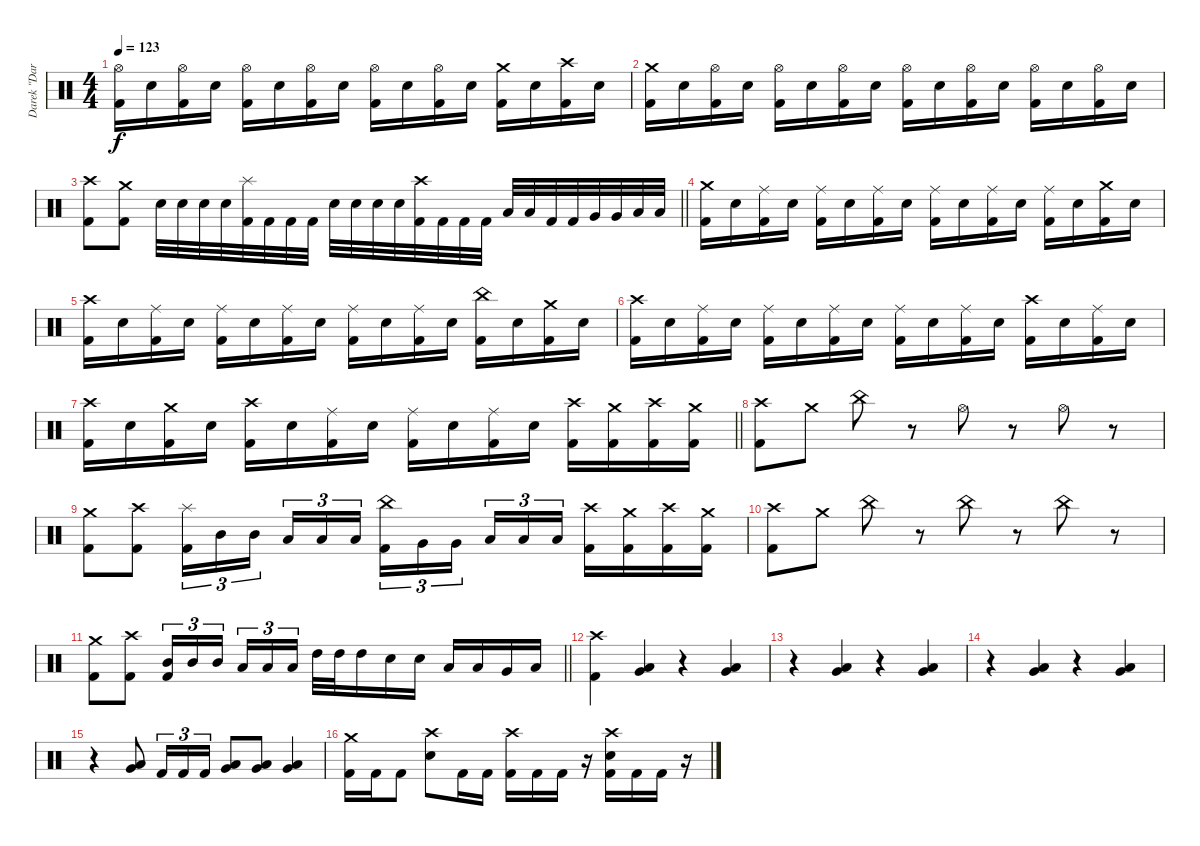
\track ("Darek \"Daray\" Brzozowski " "Darek \"Dar") {instrument percussion}
\staff {score}
\articulation defaults
\ts (4 4)
\tempo 123
\clef neutral
\ks c
("Hi-Hat (open)" "Kick (hit) 2").16{dy f} "Electric Snare (hit)".16 ("Hi-Hat (open)" "Kick (hit) 2").16 "Electric Snare (hit)".16 ("Hi-Hat (open)" "Kick (hit) 2").16 "Electric Snare (hit)".16 ("Hi-Hat (open)" "Kick (hit) 2").16 "Electric Snare (hit)".16 ("Hi-Hat (open)" "Kick (hit) 2").16 "Electric Snare (hit)".16 ("Hi-Hat (open)" "Kick (hit) 2").16 "Electric Snare (hit)".16 ("Crash medium (hit)" "Kick (hit) 2").16 "Electric Snare (hit)".16 ("Crash high (hit)" "Kick (hit) 2").16 "Electric Snare (hit)".16 |
("Crash medium (hit)" "Kick (hit) 2").16 "Electric Snare (hit)".16 ("Hi-Hat (open)" "Kick (hit) 2").16 "Electric Snare (hit)".16 ("Hi-Hat (open)" "Kick (hit) 2").16 "Electric Snare (hit)".16 ("Hi-Hat (open)" "Kick (hit) 2").16 "Electric Snare (hit)".16 ("Hi-Hat (open)" "Kick (hit) 2").16 "Electric Snare (hit)".16 ("Hi-Hat (open)" "Kick (hit) 2").16 "Electric Snare (hit)".16 ("Hi-Hat (open)" "Kick (hit) 2").16 "Electric Snare (hit)".16 ("Hi-Hat (open)" "Kick (hit) 2").16 "Electric Snare (hit)".16 |
\barLineRight lightlight
("Crash high (hit)" "Kick (hit) 2").8 ("Crash medium (hit)" "Kick (hit) 2").8 "Electric Snare (hit)".32 "Electric Snare (hit)".32 "Electric Snare (hit)".32 "Electric Snare (hit)".32 ("Splash (hit)" "Kick (hit) 2").32 "Kick (hit) 2".32 "Kick (hit) 2".32 "Kick (hit) 2".32 "Electric Snare (hit)".32 "Electric Snare (hit)".32 "Electric Snare (hit)".32 "Electric Snare (hit)".32 ("Crash high (hit)" "Kick (hit) 2").32 "Kick (hit) 2".32 "Kick (hit) 2".32 "Kick (hit) 2".32 "Low Tom (hit)".32 "Low Tom (hit)".32 "Kick (hit) 2".32 "Kick (hit) 2".32 "Very Low Tom (hit)".32 "Very Low Tom (hit)".32 "Low Floor Tom (hit)".32 "Low Floor Tom (hit)".32 |
("Crash medium (hit)" "Kick (hit) 2").16 "Electric Snare (hit)".16 ("Ride (middle)" "Kick (hit) 2").16 "Electric Snare (hit)".16 ("Ride (middle)" "Kick (hit) 2").16 "Electric Snare (hit)".16 ("Ride (middle)" "Kick (hit) 2").16 "Electric Snare (hit)".16 ("Ride (middle)" "Kick (hit) 2").16 "Electric Snare (hit)".16 ("Ride (middle)" "Kick (hit) 2").16 "Electric Snare (hit)".16 ("Ride (middle)" "Kick (hit) 2").16 "Electric Snare (hit)".16 ("Crash medium (hit)" "Kick (hit) 2").16 "Electric Snare (hit)".16 |
("Crash high (hit)" "Kick (hit) 2").16 "Electric Snare (hit)".16 ("Ride (middle)" "Kick (hit) 2").16 "Electric Snare (hit)".16 ("Ride (middle)" "Kick (hit) 2").16 "Electric Snare (hit)".16 ("Ride (middle)" "Kick (hit) 2").16 "Electric Snare (hit)".16 ("Ride (middle)" "Kick (hit) 2").16 "Electric Snare (hit)".16 ("Ride (middle)" "Kick (hit) 2").16 "Electric Snare (hit)".16 ("China (hit)" "Kick (hit) 2").16 "Electric Snare (hit)".16 ("Crash medium (hit)" "Kick (hit) 2").16 "Electric Snare (hit)".16 |
("Crash high (hit)" "Kick (hit) 2").16 "Electric Snare (hit)".16 ("Ride (middle)" "Kick (hit) 2").16 "Electric Snare (hit)".16 ("Ride (middle)" "Kick (hit) 2").16 "Electric Snare (hit)".16 ("Ride (middle)" "Kick (hit) 2").16 "Electric Snare (hit)".16 ("Ride (middle)" "Kick (hit) 2").16 "Electric Snare (hit)".16 ("Ride (middle)" "Kick (hit) 2").16 "Electric Snare (hit)".16 ("Crash high (hit)" "Kick (hit) 2").16 "Electric Snare (hit)".16 ("Ride (middle)" "Kick (hit) 2").16 "Electric Snare (hit)".16 |
\barLineRight lightlight
("Crash high (hit)" "Kick (hit) 2").16 "Electric Snare (hit)".16 ("Crash medium (hit)" "Kick (hit) 2").16 "Electric Snare (hit)".16 ("Crash high (hit)" "Kick (hit) 2").16 "Electric Snare (hit)".16 ("Ride (middle)" "Kick (hit) 2").16 "Electric Snare (hit)".16 ("Ride (middle)" "Kick (hit) 2").16 "Electric Snare (hit)".16 ("Ride (middle)" "Kick (hit) 2").16 "Electric Snare (hit)".16 ("Crash high (hit)" "Kick (hit) 2").16 ("Crash medium (hit)" "Kick (hit) 2").16 ("Crash high (hit)" "Kick (hit) 2").16 ("Crash medium (hit)" "Kick (hit) 2").16 |
("Crash high (hit)" "Kick (hit) 2").8 "Crash medium (hit)".8 "China (hit)".8 r.8 "Hi-Hat (open)".8 r.8 "Hi-Hat (open)".8 r.8 |
("Crash medium (hit)" "Kick (hit) 2").8 ("Crash high (hit)" "Kick (hit) 2").8 ("Splash (hit)" "Kick (hit) 2").16{tu (3 2)} "Mid Tom (hit)".16{tu (3 2)} "Mid Tom (hit)".16{tu (3 2) beam splitsecondary} "Low Tom (hit)".16{tu (3 2)} "Low Tom (hit)".16{tu (3 2)} "Low Tom (hit)".16{tu (3 2)} ("China (hit)" "Kick (hit) 2").16{tu (3 2)} "Very Low Tom (hit)".16{tu (3 2)} "Very Low Tom (hit)".16{tu (3 2) beam splitsecondary} "Low Floor Tom (hit)".16{tu (3 2)} "Low Floor Tom (hit)".16{tu (3 2)} "Low Floor Tom (hit)".16{tu (3 2)} ("Crash high (hit)" "Kick (hit) 2").16 ("Crash medium (hit)" "Kick (hit) 2").16 ("Crash high (hit)" "Kick (hit) 2").16 ("Crash medium (hit)" "Kick (hit) 2").16 |
("Crash high (hit)" "Kick (hit) 2").8 "Crash medium (hit)".8 "China (hit)".8 r.8 "China (hit)".8 r.8 "China (hit)".8 r.8 |
\barLineRight lightlight
("Crash medium (hit)" "Kick (hit) 2").8 ("Crash high (hit)" "Kick (hit) 2").8 ("Mid Tom (hit)" "Kick (hit) 2").16{tu (3 2)} "Mid Tom (hit)".16{tu (3 2)} "Mid Tom (hit)".16{tu (3 2) beam splitsecondary} "Low Tom (hit)".16{tu (3 2)} "Low Tom (hit)".16{tu (3 2)} "Low Tom (hit)".16{tu (3 2)} "High Tom (hit)".32 "High Tom (hit)".32 "High Tom (hit)".16 "Electric Snare (hit)".16 "Electric Snare (hit)".16 "Low Tom (hit)".16 "Low Tom (hit)".16 "Very Low Tom (hit)".16 "Low Floor Tom (hit)".16 |
("Crash high (hit)" "Kick (hit) 2").4 ("Very Low Tom (hit)" "Low Floor Tom (hit)").4 r.4 ("Very Low Tom (hit)" "Low Floor Tom (hit)").4 |
r.4 ("Very Low Tom (hit)" "Low Floor Tom (hit)").4 r.4 ("Very Low Tom (hit)" "Low Floor Tom (hit)").4 |
r.4 ("Very Low Tom (hit)" "Low Floor Tom (hit)").4 r.4 ("Very Low Tom (hit)" "Low Floor Tom (hit)").4 |
r.4 ("Very Low Tom (hit)" "Low Floor Tom (hit)").8 "Kick (hit) 2".16{tu (3 2)} "Kick (hit) 2".16{tu (3 2)} "Kick (hit) 2".16{tu (3 2)} ("Very Low Tom (hit)" "Low Floor Tom (hit)").8 ("Very Low Tom (hit)" "Low Floor Tom (hit)").8 ("Very Low Tom (hit)" "Low Floor Tom (hit)").4 |
("Crash medium (hit)" "Kick (hit) 2").16 "Kick (hit) 2".16 "Kick (hit) 2".8 ("Crash high (hit)" "Electric Snare (hit)").8 "Kick (hit) 2".16 "Kick (hit) 2".16 ("Crash high (hit)" "Kick (hit) 2").16 "Kick (hit) 2".16 "Kick (hit) 2".16 r.16 ("Crash high (hit)" "Electric Snare (hit)" "Kick (hit) 2").16 "Kick (hit) 2".16 "Kick (hit) 2".16 r.16
